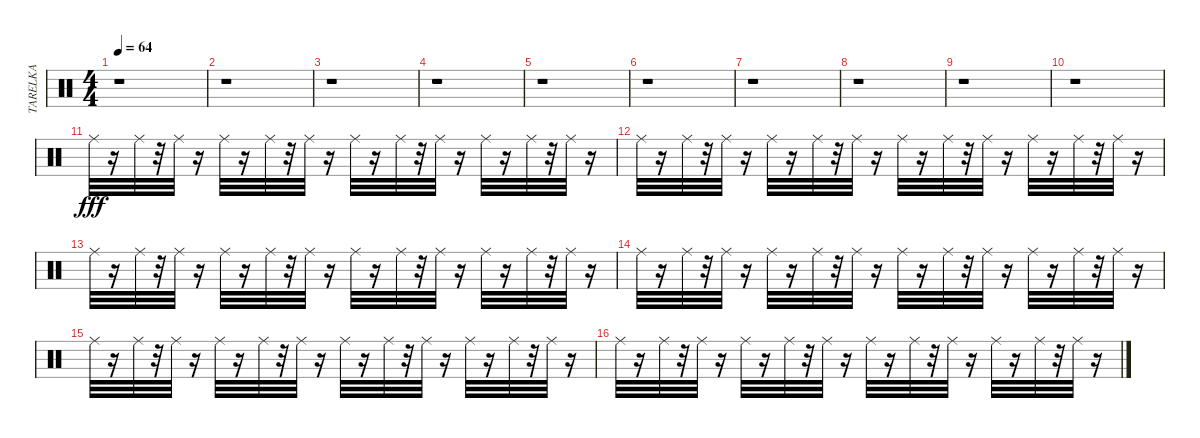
\track ("TARELKA" "TARELKA") {instrument percussion}
\staff {score}
\articulation defaults
\ts (4 4)
\tempo 64
\clef neutral
\ks c
r.1{dy fff} |
r.1 |
r.1 |
r.1 |
r.1 |
r.1 |
r.1 |
r.1 |
r.1 |
r.1 |
"Ride (middle)".32 r.16 "Ride (middle)".32 r.32 "Ride (middle)".32 r.16 "Ride (middle)".32 r.16 "Ride (middle)".32 r.32 "Ride (middle)".32 r.16 "Ride (middle)".32 r.16 "Ride (middle)".32 r.32 "Ride (middle)".32 r.16 "Ride (middle)".32 r.16 "Ride (middle)".32 r.32 "Ride (middle)".32 r.16 |
"Ride (middle)".32 r.16 "Ride (middle)".32 r.32 "Ride (middle)".32 r.16 "Ride (middle)".32 r.16 "Ride (middle)".32 r.32 "Ride (middle)".32 r.16 "Ride (middle)".32 r.16 "Ride (middle)".32 r.32 "Ride (middle)".32 r.16 "Ride (middle)".32 r.16 "Ride (middle)".32 r.32 "Ride (middle)".32 r.16 |
"Ride (middle)".32 r.16 "Ride (middle)".32 r.32 "Ride (middle)".32 r.16 "Ride (middle)".32 r.16 "Ride (middle)".32 r.32 "Ride (middle)".32 r.16 "Ride (middle)".32 r.16 "Ride (middle)".32 r.32 "Ride (middle)".32 r.16 "Ride (middle)".32 r.16 "Ride (middle)".32 r.32 "Ride (middle)".32 r.16 |
"Ride (middle)".32 r.16 "Ride (middle)".32 r.32 "Ride (middle)".32 r.16 "Ride (middle)".32 r.16 "Ride (middle)".32 r.32 "Ride (middle)".32 r.16 "Ride (middle)".32 r.16 "Ride (middle)".32 r.32 "Ride (middle)".32 r.16 "Ride (middle)".32 r.16 "Ride (middle)".32 r.32 "Ride (middle)".32 r.16 |
"Ride (middle)".32 r.16 "Ride (middle)".32 r.32 "Ride (middle)".32 r.16 "Ride (middle)".32 r.16 "Ride (middle)".32 r.32 "Ride (middle)".32 r.16 "Ride (middle)".32 r.16 "Ride (middle)".32 r.32 "Ride (middle)".32 r.16 "Ride (middle)".32 r.16 "Ride (middle)".32 r.32 "Ride (middle)".32 r.16 |
"Ride (middle)".32 r.16 "Ride (middle)".32 r.32 "Ride (middle)".32 r.16 "Ride (middle)".32 r.16 "Ride (middle)".32 r.32 "Ride (middle)".32 r.16 "Ride (middle)".32 r.16 "Ride (middle)".32 r.32 "Ride (middle)".32 r.16 "Ride (middle)".32 r.16 "Ride (middle)".32 r.32 "Ride (middle)".32 r.16
